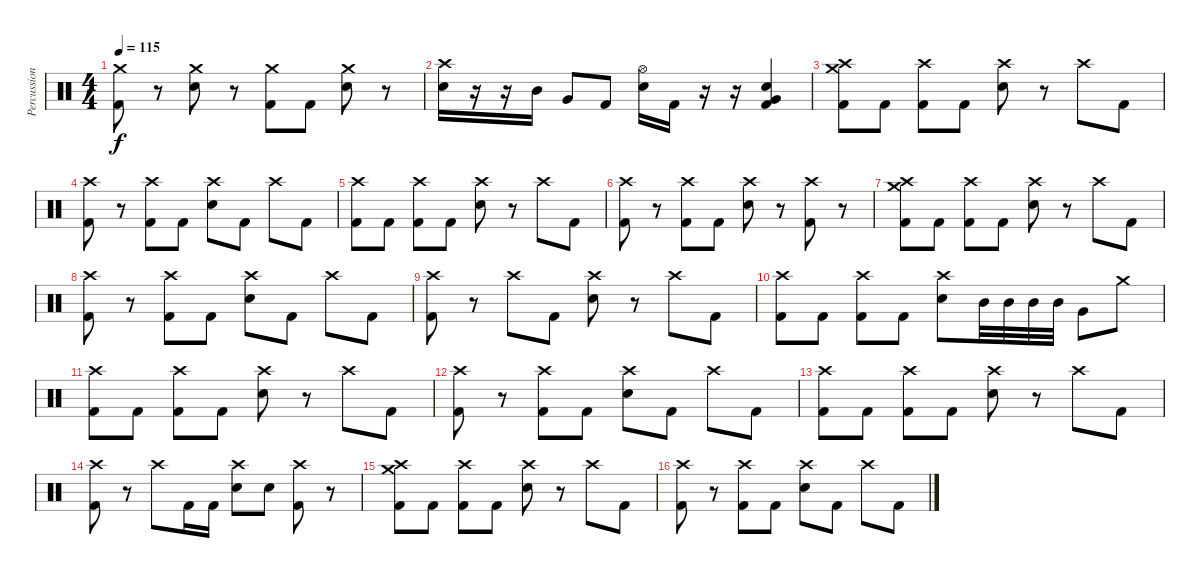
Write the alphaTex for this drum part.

\track ("Percussion" "Percussion") {instrument percussion}
\staff {score}
\articulation defaults
\ts (4 4)
\tempo 115
\clef neutral
\ks c
("Kick (hit) 2" "Crash medium (hit)").8{dy f} r.8 ("Electric Snare (hit)" "Crash medium (hit)").8 r.8 ("Kick (hit) 2" "Crash medium (hit)").8 "Kick (hit) 2".8 ("Electric Snare (hit)" "Crash medium (hit)").8 r.8 |
("Electric Snare (hit)" "Crash high (hit)").16 r.16 r.16 "Mid Tom (hit)".16 "Very Low Tom (hit)".8 "Kick (hit) 2".8 ("Electric Snare (hit)" "Hi-Hat (open)").16 "Kick (hit) 2".16 r.16 r.16 ("Kick (hit) 2" "Very Low Tom (hit)" "Electric Snare (hit)").4 |
("Kick (hit) 2" "Crash medium (hit)" "Crash high (hit)").8 "Kick (hit) 2".8 ("Kick (hit) 2" "Crash high (hit)").8 "Kick (hit) 2".8 ("Electric Snare (hit)" "Crash high (hit)").8 r.8 "Crash high (hit)".8 "Kick (hit) 2".8 |
("Kick (hit) 2" "Crash high (hit)").8 r.8 ("Kick (hit) 2" "Crash high (hit)").8 "Kick (hit) 2".8 ("Electric Snare (hit)" "Crash high (hit)").8 "Kick (hit) 2".8 "Crash high (hit)".8 "Kick (hit) 2".8 |
("Kick (hit) 2" "Crash high (hit)").8 "Kick (hit) 2".8 ("Kick (hit) 2" "Crash high (hit)").8 "Kick (hit) 2".8 ("Electric Snare (hit)" "Crash high (hit)").8 r.8 "Crash high (hit)".8 "Kick (hit) 2".8 |
("Kick (hit) 2" "Crash high (hit)").8 r.8 ("Kick (hit) 2" "Crash high (hit)").8 "Kick (hit) 2".8 ("Electric Snare (hit)" "Crash high (hit)").8 r.8 ("Kick (hit) 2" "Crash high (hit)").8 r.8 |
("Kick (hit) 2" "Crash medium (hit)" "Crash high (hit)").8 "Kick (hit) 2".8 ("Kick (hit) 2" "Crash high (hit)").8 "Kick (hit) 2".8 ("Electric Snare (hit)" "Crash high (hit)").8 r.8 "Crash high (hit)".8 "Kick (hit) 2".8 |
("Kick (hit) 2" "Crash high (hit)").8 r.8 ("Kick (hit) 2" "Crash high (hit)").8 "Kick (hit) 2".8 ("Electric Snare (hit)" "Crash high (hit)").8 "Kick (hit) 2".8 "Crash high (hit)".8 "Kick (hit) 2".8 |
("Kick (hit) 2" "Crash high (hit)").8 r.8 "Crash high (hit)".8 "Kick (hit) 2".8 ("Electric Snare (hit)" "Crash high (hit)").8 r.8 "Crash high (hit)".8 "Kick (hit) 2".8 |
("Kick (hit) 2" "Crash high (hit)").8 "Kick (hit) 2".8 ("Kick (hit) 2" "Crash high (hit)").8 "Kick (hit) 2".8 ("Electric Snare (hit)" "Crash high (hit)").8 "Mid Tom (hit)".32 "Mid Tom (hit)".32 "Mid Tom (hit)".32 "Mid Tom (hit)".32 "Very Low Tom (hit)".8 "Crash medium (hit)".8 |
("Kick (hit) 2" "Crash high (hit)").8 "Kick (hit) 2".8 ("Kick (hit) 2" "Crash high (hit)").8 "Kick (hit) 2".8 ("Electric Snare (hit)" "Crash high (hit)").8 r.8 "Crash high (hit)".8 "Kick (hit) 2".8 |
("Kick (hit) 2" "Crash high (hit)").8 r.8 ("Kick (hit) 2" "Crash high (hit)").8 "Kick (hit) 2".8 ("Electric Snare (hit)" "Crash high (hit)").8 "Kick (hit) 2".8 "Crash high (hit)".8 "Kick (hit) 2".8 |
("Kick (hit) 2" "Crash high (hit)").8 "Kick (hit) 2".8 ("Kick (hit) 2" "Crash high (hit)").8 "Kick (hit) 2".8 ("Electric Snare (hit)" "Crash high (hit)").8 r.8 "Crash high (hit)".8 "Kick (hit) 2".8 |
("Kick (hit) 2" "Crash high (hit)").8 r.8 "Crash high (hit)".8 "Kick (hit) 2".16 "Kick (hit) 2".16 ("Electric Snare (hit)" "Crash high (hit)").8 "Electric Snare (hit)".8 ("Kick (hit) 2" "Crash high (hit)").8 r.8 |
("Kick (hit) 2" "Crash medium (hit)" "Crash high (hit)").8 "Kick (hit) 2".8 ("Kick (hit) 2" "Crash high (hit)").8 "Kick (hit) 2".8 ("Electric Snare (hit)" "Crash high (hit)").8 r.8 "Crash high (hit)".8 "Kick (hit) 2".8 |
("Kick (hit) 2" "Crash high (hit)").8 r.8 ("Kick (hit) 2" "Crash high (hit)").8 "Kick (hit) 2".8 ("Electric Snare (hit)" "Crash high (hit)").8 "Kick (hit) 2".8 "Crash high (hit)".8 "Kick (hit) 2".8
